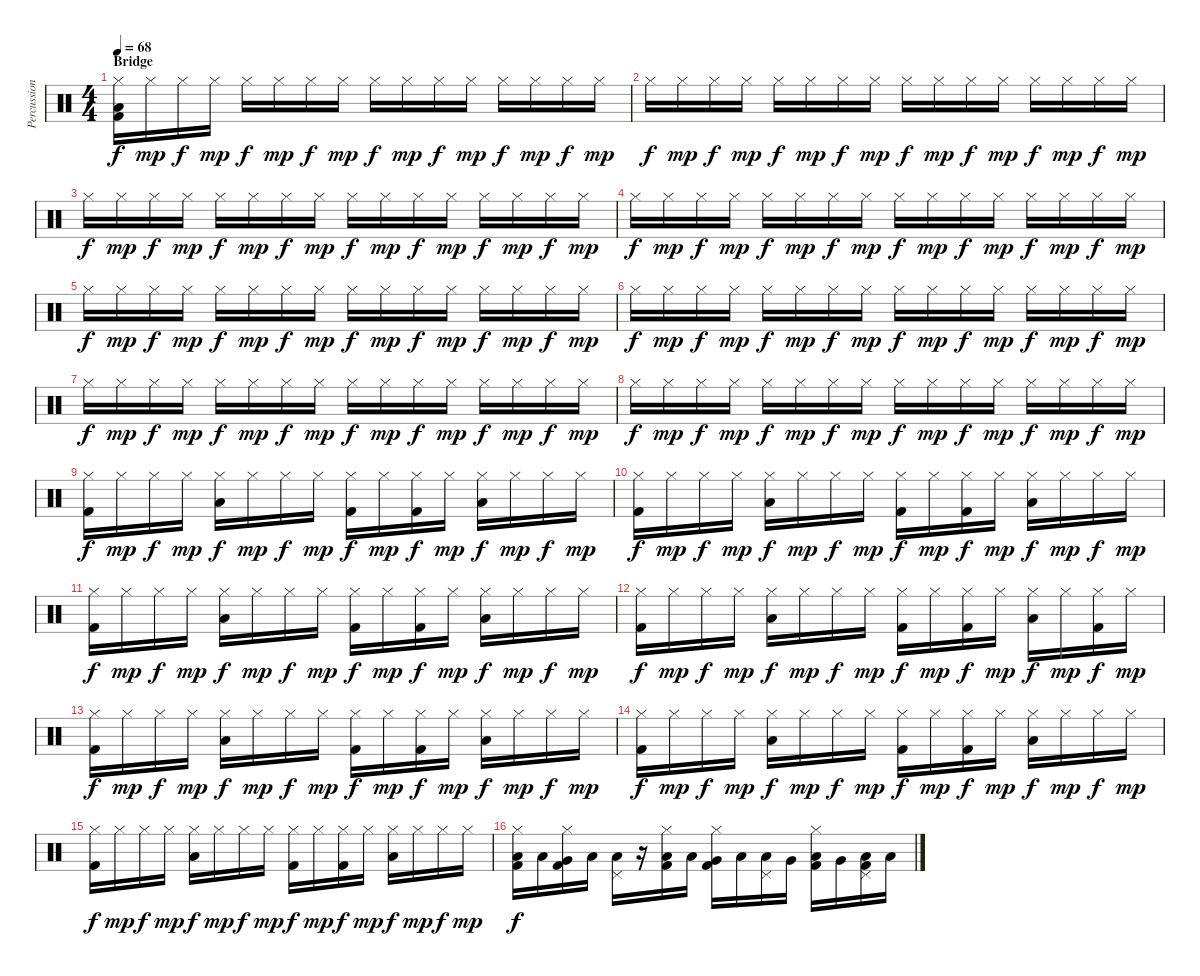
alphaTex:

\track ("Percussion" "Percussion") {instrument percussion}
\staff {score}
\articulation defaults
\ts (4 4)
\section ("" "Bridge")
\tempo 68
\clef neutral
\ks c
("Hi-Hat (closed)" "Low Floor Tom (hit)" "Kick (hit) 2").16{dy f} "Hi-Hat (closed)".16{dy mp} "Hi-Hat (closed)".16{dy f} "Hi-Hat (closed)".16{dy mp} "Hi-Hat (closed)".16{dy f} "Hi-Hat (closed)".16{dy mp} "Hi-Hat (closed)".16{dy f} "Hi-Hat (closed)".16{dy mp} "Hi-Hat (closed)".16{dy f} "Hi-Hat (closed)".16{dy mp} "Hi-Hat (closed)".16{dy f} "Hi-Hat (closed)".16{dy mp} "Hi-Hat (closed)".16{dy f} "Hi-Hat (closed)".16{dy mp} "Hi-Hat (closed)".16{dy f} "Hi-Hat (closed)".16{dy mp} |
"Hi-Hat (closed)".16{dy f} "Hi-Hat (closed)".16{dy mp} "Hi-Hat (closed)".16{dy f} "Hi-Hat (closed)".16{dy mp} "Hi-Hat (closed)".16{dy f} "Hi-Hat (closed)".16{dy mp} "Hi-Hat (closed)".16{dy f} "Hi-Hat (closed)".16{dy mp} "Hi-Hat (closed)".16{dy f} "Hi-Hat (closed)".16{dy mp} "Hi-Hat (closed)".16{dy f} "Hi-Hat (closed)".16{dy mp} "Hi-Hat (closed)".16{dy f} "Hi-Hat (closed)".16{dy mp} "Hi-Hat (closed)".16{dy f} "Hi-Hat (closed)".16{dy mp} |
"Hi-Hat (closed)".16{dy f} "Hi-Hat (closed)".16{dy mp} "Hi-Hat (closed)".16{dy f} "Hi-Hat (closed)".16{dy mp} "Hi-Hat (closed)".16{dy f} "Hi-Hat (closed)".16{dy mp} "Hi-Hat (closed)".16{dy f} "Hi-Hat (closed)".16{dy mp} "Hi-Hat (closed)".16{dy f} "Hi-Hat (closed)".16{dy mp} "Hi-Hat (closed)".16{dy f} "Hi-Hat (closed)".16{dy mp} "Hi-Hat (closed)".16{dy f} "Hi-Hat (closed)".16{dy mp} "Hi-Hat (closed)".16{dy f} "Hi-Hat (closed)".16{dy mp} |
"Hi-Hat (closed)".16{dy f} "Hi-Hat (closed)".16{dy mp} "Hi-Hat (closed)".16{dy f} "Hi-Hat (closed)".16{dy mp} "Hi-Hat (closed)".16{dy f} "Hi-Hat (closed)".16{dy mp} "Hi-Hat (closed)".16{dy f} "Hi-Hat (closed)".16{dy mp} "Hi-Hat (closed)".16{dy f} "Hi-Hat (closed)".16{dy mp} "Hi-Hat (closed)".16{dy f} "Hi-Hat (closed)".16{dy mp} "Hi-Hat (closed)".16{dy f} "Hi-Hat (closed)".16{dy mp} "Hi-Hat (closed)".16{dy f} "Hi-Hat (closed)".16{dy mp} |
"Hi-Hat (closed)".16{dy f} "Hi-Hat (closed)".16{dy mp} "Hi-Hat (closed)".16{dy f} "Hi-Hat (closed)".16{dy mp} "Hi-Hat (closed)".16{dy f} "Hi-Hat (closed)".16{dy mp} "Hi-Hat (closed)".16{dy f} "Hi-Hat (closed)".16{dy mp} "Hi-Hat (closed)".16{dy f} "Hi-Hat (closed)".16{dy mp} "Hi-Hat (closed)".16{dy f} "Hi-Hat (closed)".16{dy mp} "Hi-Hat (closed)".16{dy f} "Hi-Hat (closed)".16{dy mp} "Hi-Hat (closed)".16{dy f} "Hi-Hat (closed)".16{dy mp} |
"Hi-Hat (closed)".16{dy f} "Hi-Hat (closed)".16{dy mp} "Hi-Hat (closed)".16{dy f} "Hi-Hat (closed)".16{dy mp} "Hi-Hat (closed)".16{dy f} "Hi-Hat (closed)".16{dy mp} "Hi-Hat (closed)".16{dy f} "Hi-Hat (closed)".16{dy mp} "Hi-Hat (closed)".16{dy f} "Hi-Hat (closed)".16{dy mp} "Hi-Hat (closed)".16{dy f} "Hi-Hat (closed)".16{dy mp} "Hi-Hat (closed)".16{dy f} "Hi-Hat (closed)".16{dy mp} "Hi-Hat (closed)".16{dy f} "Hi-Hat (closed)".16{dy mp} |
"Hi-Hat (closed)".16{dy f} "Hi-Hat (closed)".16{dy mp} "Hi-Hat (closed)".16{dy f} "Hi-Hat (closed)".16{dy mp} "Hi-Hat (closed)".16{dy f} "Hi-Hat (closed)".16{dy mp} "Hi-Hat (closed)".16{dy f} "Hi-Hat (closed)".16{dy mp} "Hi-Hat (closed)".16{dy f} "Hi-Hat (closed)".16{dy mp} "Hi-Hat (closed)".16{dy f} "Hi-Hat (closed)".16{dy mp} "Hi-Hat (closed)".16{dy f} "Hi-Hat (closed)".16{dy mp} "Hi-Hat (closed)".16{dy f} "Hi-Hat (closed)".16{dy mp} |
"Hi-Hat (closed)".16{dy f} "Hi-Hat (closed)".16{dy mp} "Hi-Hat (closed)".16{dy f} "Hi-Hat (closed)".16{dy mp} "Hi-Hat (closed)".16{dy f} "Hi-Hat (closed)".16{dy mp} "Hi-Hat (closed)".16{dy f} "Hi-Hat (closed)".16{dy mp} "Hi-Hat (closed)".16{dy f} "Hi-Hat (closed)".16{dy mp} "Hi-Hat (closed)".16{dy f} "Hi-Hat (closed)".16{dy mp} "Hi-Hat (closed)".16{dy f} "Hi-Hat (closed)".16{dy mp} "Hi-Hat (closed)".16{dy f} "Hi-Hat (closed)".16{dy mp} |
("Hi-Hat (closed)" "Kick (hit) 2").16{dy f} "Hi-Hat (closed)".16{dy mp} "Hi-Hat (closed)".16{dy f} "Hi-Hat (closed)".16{dy mp} ("Hi-Hat (closed)" "Low Floor Tom (hit)").16{dy f} "Hi-Hat (closed)".16{dy mp} "Hi-Hat (closed)".16{dy f} "Hi-Hat (closed)".16{dy mp} ("Hi-Hat (closed)" "Kick (hit) 2").16{dy f} "Hi-Hat (closed)".16{dy mp} ("Hi-Hat (closed)" "Kick (hit) 2").16{dy f} "Hi-Hat (closed)".16{dy mp} ("Hi-Hat (closed)" "Low Floor Tom (hit)").16{dy f} "Hi-Hat (closed)".16{dy mp} "Hi-Hat (closed)".16{dy f} "Hi-Hat (closed)".16{dy mp} |
("Hi-Hat (closed)" "Kick (hit) 2").16{dy f} "Hi-Hat (closed)".16{dy mp} "Hi-Hat (closed)".16{dy f} "Hi-Hat (closed)".16{dy mp} ("Hi-Hat (closed)" "Low Floor Tom (hit)").16{dy f} "Hi-Hat (closed)".16{dy mp} "Hi-Hat (closed)".16{dy f} "Hi-Hat (closed)".16{dy mp} ("Hi-Hat (closed)" "Kick (hit) 2").16{dy f} "Hi-Hat (closed)".16{dy mp} ("Hi-Hat (closed)" "Kick (hit) 2").16{dy f} "Hi-Hat (closed)".16{dy mp} ("Hi-Hat (closed)" "Low Floor Tom (hit)").16{dy f} "Hi-Hat (closed)".16{dy mp} "Hi-Hat (closed)".16{dy f} "Hi-Hat (closed)".16{dy mp} |
("Hi-Hat (closed)" "Kick (hit) 2").16{dy f} "Hi-Hat (closed)".16{dy mp} "Hi-Hat (closed)".16{dy f} "Hi-Hat (closed)".16{dy mp} ("Hi-Hat (closed)" "Low Floor Tom (hit)").16{dy f} "Hi-Hat (closed)".16{dy mp} "Hi-Hat (closed)".16{dy f} "Hi-Hat (closed)".16{dy mp} ("Hi-Hat (closed)" "Kick (hit) 2").16{dy f} "Hi-Hat (closed)".16{dy mp} ("Hi-Hat (closed)" "Kick (hit) 2").16{dy f} "Hi-Hat (closed)".16{dy mp} ("Hi-Hat (closed)" "Low Floor Tom (hit)").16{dy f} "Hi-Hat (closed)".16{dy mp} "Hi-Hat (closed)".16{dy f} "Hi-Hat (closed)".16{dy mp} |
("Hi-Hat (closed)" "Kick (hit) 2").16{dy f} "Hi-Hat (closed)".16{dy mp} "Hi-Hat (closed)".16{dy f} "Hi-Hat (closed)".16{dy mp} ("Hi-Hat (closed)" "Low Floor Tom (hit)").16{dy f} "Hi-Hat (closed)".16{dy mp} "Hi-Hat (closed)".16{dy f} "Hi-Hat (closed)".16{dy mp} ("Hi-Hat (closed)" "Kick (hit) 2").16{dy f} "Hi-Hat (closed)".16{dy mp} ("Hi-Hat (closed)" "Kick (hit) 2").16{dy f} "Hi-Hat (closed)".16{dy mp} ("Hi-Hat (closed)" "Low Floor Tom (hit)").16{dy f} "Hi-Hat (closed)".16{dy mp} ("Hi-Hat (closed)" "Kick (hit) 2").16{dy f} "Hi-Hat (closed)".16{dy mp} |
("Hi-Hat (closed)" "Kick (hit) 2").16{dy f} "Hi-Hat (closed)".16{dy mp} "Hi-Hat (closed)".16{dy f} "Hi-Hat (closed)".16{dy mp} ("Hi-Hat (closed)" "Low Floor Tom (hit)").16{dy f} "Hi-Hat (closed)".16{dy mp} "Hi-Hat (closed)".16{dy f} "Hi-Hat (closed)".16{dy mp} ("Hi-Hat (closed)" "Kick (hit) 2").16{dy f} "Hi-Hat (closed)".16{dy mp} ("Hi-Hat (closed)" "Kick (hit) 2").16{dy f} "Hi-Hat (closed)".16{dy mp} ("Hi-Hat (closed)" "Low Floor Tom (hit)").16{dy f} "Hi-Hat (closed)".16{dy mp} "Hi-Hat (closed)".16{dy f} "Hi-Hat (closed)".16{dy mp} |
("Hi-Hat (closed)" "Kick (hit) 2").16{dy f} "Hi-Hat (closed)".16{dy mp} "Hi-Hat (closed)".16{dy f} "Hi-Hat (closed)".16{dy mp} ("Hi-Hat (closed)" "Low Floor Tom (hit)").16{dy f} "Hi-Hat (closed)".16{dy mp} "Hi-Hat (closed)".16{dy f} "Hi-Hat (closed)".16{dy mp} ("Hi-Hat (closed)" "Kick (hit) 2").16{dy f} "Hi-Hat (closed)".16{dy mp} ("Hi-Hat (closed)" "Kick (hit) 2").16{dy f} "Hi-Hat (closed)".16{dy mp} ("Hi-Hat (closed)" "Low Floor Tom (hit)").16{dy f} "Hi-Hat (closed)".16{dy mp} "Hi-Hat (closed)".16{dy f} "Hi-Hat (closed)".16{dy mp} |
("Hi-Hat (closed)" "Kick (hit) 2").16{dy f} "Hi-Hat (closed)".16{dy mp} "Hi-Hat (closed)".16{dy f} "Hi-Hat (closed)".16{dy mp} ("Hi-Hat (closed)" "Low Floor Tom (hit)").16{dy f} "Hi-Hat (closed)".16{dy mp} "Hi-Hat (closed)".16{dy f} "Hi-Hat (closed)".16{dy mp} ("Hi-Hat (closed)" "Kick (hit) 2").16{dy f} "Hi-Hat (closed)".16{dy mp} ("Hi-Hat (closed)" "Kick (hit) 2").16{dy f} "Hi-Hat (closed)".16{dy mp} ("Hi-Hat (closed)" "Low Floor Tom (hit)").16{dy f} "Hi-Hat (closed)".16{dy mp} "Hi-Hat (closed)".16{dy f} "Hi-Hat (closed)".16{dy mp} |
("Hi-Hat (closed)" "Low Tom (hit)" "Kick (hit) 2").16{dy f} "Low Floor Tom (hit)".16 ("Hi-Hat (closed)" "Very Low Tom (hit)" "Kick (hit) 2").16 "Low Floor Tom (hit)".16 ("Pedal Hi-Hat (hit)" "Low Floor Tom (hit)").16 r.16 ("Hi-Hat (closed)" "Low Tom (hit)" "Kick (hit) 2").16 "Low Floor Tom (hit)".16 ("Hi-Hat (closed)" "Very Low Tom (hit)" "Kick (hit) 2").16 "Low Floor Tom (hit)".16 ("Pedal Hi-Hat (hit)" "Low Floor Tom (hit)").16 "Very Low Tom (hit)".16 ("Hi-Hat (closed)" "Low Tom (hit)" "Kick (hit) 2").16 "Very Low Tom (hit)".16 ("Pedal Hi-Hat (hit)" "Low Floor Tom (hit)" "Kick (hit) 2").16 "Low Floor Tom (hit)".16
